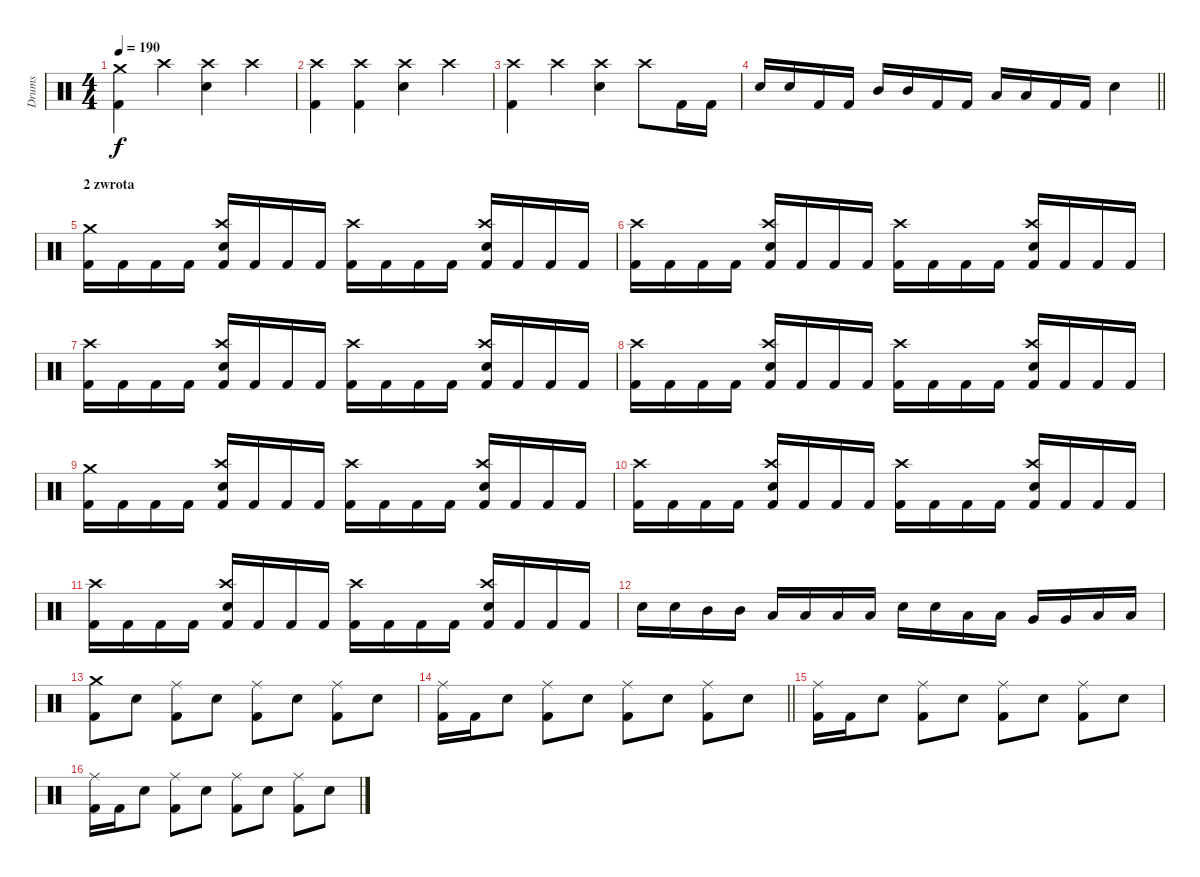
\track ("Drums" "Drums") {instrument percussion}
\staff {score}
\articulation defaults
\ts (4 4)
\tempo 190
\clef neutral
\ks c
("Crash medium (hit)" "Kick (hit) 2").4{dy f} "Crash high (hit)".4 ("Crash high (hit)" "Snare (hit) 2").4 "Crash high (hit)".4 |
("Crash high (hit)" "Kick (hit) 2").4 ("Crash high (hit)" "Kick (hit) 2").4 ("Crash high (hit)" "Snare (hit) 2").4 "Crash high (hit)".4 |
("Crash high (hit)" "Kick (hit) 2").4 "Crash high (hit)".4 ("Crash high (hit)" "Snare (hit) 2").4 "Crash high (hit)".8 "Kick (hit) 2".16 "Kick (hit) 2".16 |
\barLineRight lightlight "Snare (hit) 2".16 "Snare (hit) 2".16 "Kick (hit) 2".16 "Kick (hit) 2".16 "Mid Tom (hit)".16 "Mid Tom (hit)".16 "Kick (hit) 2".16 "Kick (hit) 2".16 "Low Tom (hit)".16 "Low Tom (hit)".16 "Kick (hit) 2".16 "Kick (hit) 2".16 "Snare (hit) 2".4
|
\section ("" "2 zwrota")
("Crash medium (hit)" "Kick (hit) 2").16 "Kick (hit) 2".16 "Kick (hit) 2".16 "Kick (hit) 2".16 ("Crash high (hit)" "Snare (hit) 2" "Kick (hit) 2").16 "Kick (hit) 2".16 "Kick (hit) 2".16 "Kick (hit) 2".16 ("Crash high (hit)" "Kick (hit) 2").16 "Kick (hit) 2".16 "Kick (hit) 2".16 "Kick (hit) 2".16 ("Crash high (hit)" "Snare (hit) 2" "Kick (hit) 2").16 "Kick (hit) 2".16 "Kick (hit) 2".16 "Kick (hit) 2".16 |
("Crash high (hit)" "Kick (hit) 2").16 "Kick (hit) 2".16 "Kick (hit) 2".16 "Kick (hit) 2".16 ("Crash high (hit)" "Snare (hit) 2" "Kick (hit) 2").16 "Kick (hit) 2".16 "Kick (hit) 2".16 "Kick (hit) 2".16 ("Crash high (hit)" "Kick (hit) 2").16 "Kick (hit) 2".16 "Kick (hit) 2".16 "Kick (hit) 2".16 ("Crash high (hit)" "Snare (hit) 2" "Kick (hit) 2").16 "Kick (hit) 2".16 "Kick (hit) 2".16 "Kick (hit) 2".16 |
("Crash high (hit)" "Kick (hit) 2").16 "Kick (hit) 2".16 "Kick (hit) 2".16 "Kick (hit) 2".16 ("Crash high (hit)" "Snare (hit) 2" "Kick (hit) 2").16 "Kick (hit) 2".16 "Kick (hit) 2".16 "Kick (hit) 2".16 ("Crash high (hit)" "Kick (hit) 2").16 "Kick (hit) 2".16 "Kick (hit) 2".16 "Kick (hit) 2".16 ("Crash high (hit)" "Snare (hit) 2" "Kick (hit) 2").16 "Kick (hit) 2".16 "Kick (hit) 2".16 "Kick (hit) 2".16 |
("Crash high (hit)" "Kick (hit) 2").16 "Kick (hit) 2".16 "Kick (hit) 2".16 "Kick (hit) 2".16 ("Crash high (hit)" "Snare (hit) 2" "Kick (hit) 2").16 "Kick (hit) 2".16 "Kick (hit) 2".16 "Kick (hit) 2".16 ("Crash high (hit)" "Kick (hit) 2").16 "Kick (hit) 2".16 "Kick (hit) 2".16 "Kick (hit) 2".16 ("Crash high (hit)" "Snare (hit) 2" "Kick (hit) 2").16 "Kick (hit) 2".16 "Kick (hit) 2".16 "Kick (hit) 2".16 |
("Crash medium (hit)" "Kick (hit) 2").16 "Kick (hit) 2".16 "Kick (hit) 2".16 "Kick (hit) 2".16 ("Crash high (hit)" "Snare (hit) 2" "Kick (hit) 2").16 "Kick (hit) 2".16 "Kick (hit) 2".16 "Kick (hit) 2".16 ("Crash high (hit)" "Kick (hit) 2").16 "Kick (hit) 2".16 "Kick (hit) 2".16 "Kick (hit) 2".16 ("Crash high (hit)" "Snare (hit) 2" "Kick (hit) 2").16 "Kick (hit) 2".16 "Kick (hit) 2".16 "Kick (hit) 2".16 |
("Crash high (hit)" "Kick (hit) 2").16 "Kick (hit) 2".16 "Kick (hit) 2".16 "Kick (hit) 2".16 ("Crash high (hit)" "Snare (hit) 2" "Kick (hit) 2").16 "Kick (hit) 2".16 "Kick (hit) 2".16 "Kick (hit) 2".16 ("Crash high (hit)" "Kick (hit) 2").16 "Kick (hit) 2".16 "Kick (hit) 2".16 "Kick (hit) 2".16 ("Crash high (hit)" "Snare (hit) 2" "Kick (hit) 2").16 "Kick (hit) 2".16 "Kick (hit) 2".16 "Kick (hit) 2".16 |
("Crash high (hit)" "Kick (hit) 2").16 "Kick (hit) 2".16 "Kick (hit) 2".16 "Kick (hit) 2".16 ("Crash high (hit)" "Snare (hit) 2" "Kick (hit) 2").16 "Kick (hit) 2".16 "Kick (hit) 2".16 "Kick (hit) 2".16 ("Crash high (hit)" "Kick (hit) 2").16 "Kick (hit) 2".16 "Kick (hit) 2".16 "Kick (hit) 2".16 ("Crash high (hit)" "Snare (hit) 2" "Kick (hit) 2").16 "Kick (hit) 2".16 "Kick (hit) 2".16 "Kick (hit) 2".16 |
"Snare (hit) 2".16 "Snare (hit) 2".16 "Mid Tom (hit)".16 "Mid Tom (hit)".16 "Low Tom (hit)".16 "Low Tom (hit)".16 "Low Tom (hit)".16 "Low Tom (hit)".16 "Snare (hit) 2".16 "Snare (hit) 2".16 "Low Tom (hit)".16 "Low Tom (hit)".16 "Very Low Tom (hit)".16 "Very Low Tom (hit)".16 "Low Floor Tom (hit)".16 "Low Floor Tom (hit)".16 |
("Crash medium (hit)" "Kick (hit) 2").8 "Snare (hit) 2".8 ("Ride (middle)" "Kick (hit) 2").8 "Snare (hit) 2".8 ("Ride (middle)" "Kick (hit) 2").8 "Snare (hit) 2".8 ("Ride (middle)" "Kick (hit) 2").8 "Snare (hit) 2".8 |
\barLineRight lightlight
("Ride (middle)" "Kick (hit) 2").16 "Kick (hit) 2".16 "Snare (hit) 2".8 ("Ride (middle)" "Kick (hit) 2").8 "Snare (hit) 2".8 ("Ride (middle)" "Kick (hit) 2").8 "Snare (hit) 2".8 ("Ride (middle)" "Kick (hit) 2").8 "Snare (hit) 2".8 |
("Ride (middle)" "Kick (hit) 2").16 "Kick (hit) 2".16 "Snare (hit) 2".8 ("Ride (middle)" "Kick (hit) 2").8 "Snare (hit) 2".8 ("Ride (middle)" "Kick (hit) 2").8 "Snare (hit) 2".8 ("Ride (middle)" "Kick (hit) 2").8 "Snare (hit) 2".8 |
("Ride (middle)" "Kick (hit) 2").16 "Kick (hit) 2".16 "Snare (hit) 2".8 ("Ride (middle)" "Kick (hit) 2").8 "Snare (hit) 2".8 ("Ride (middle)" "Kick (hit) 2").8 "Snare (hit) 2".8 ("Ride (middle)" "Kick (hit) 2").8 "Snare (hit) 2".8
